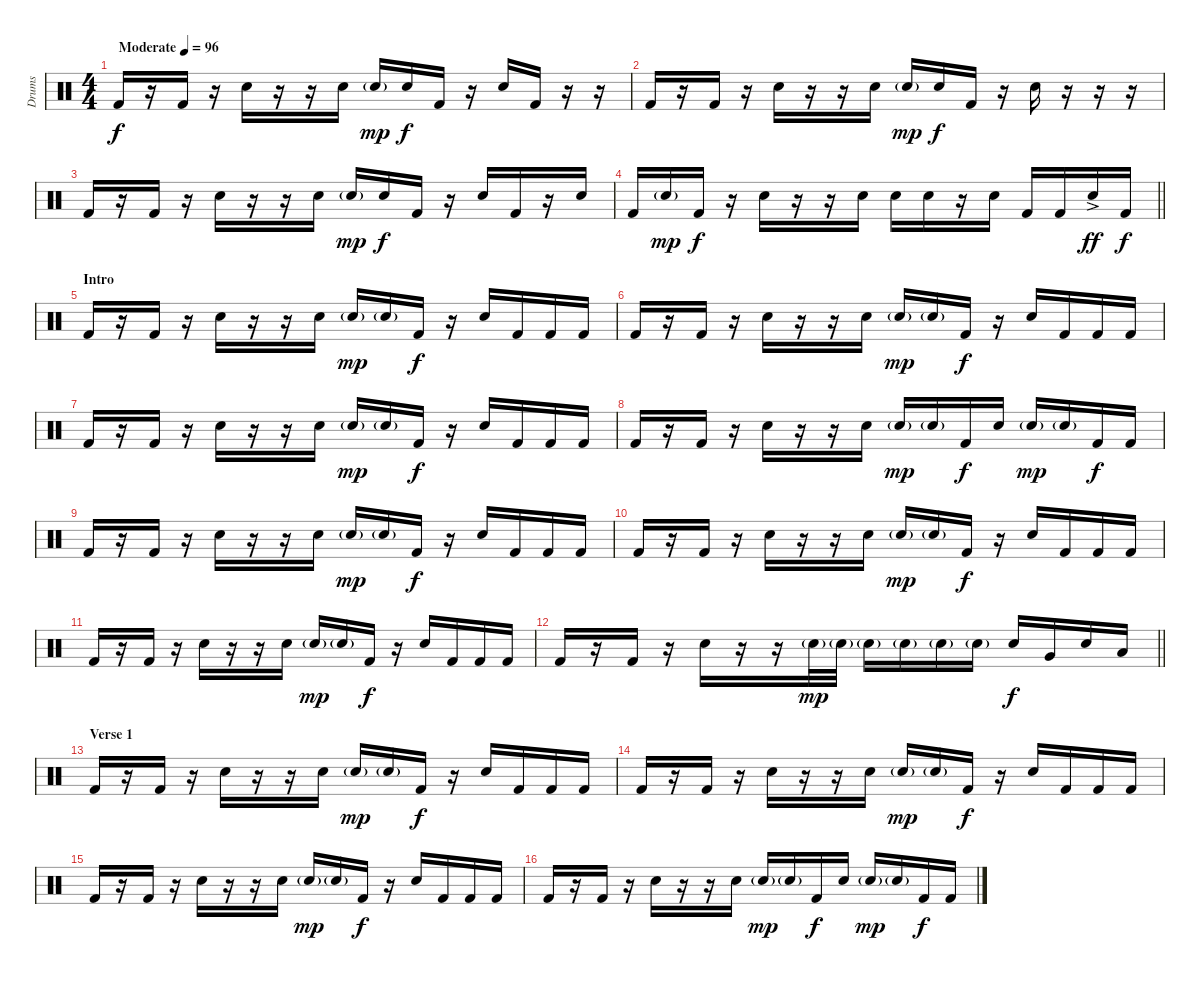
\track ("Drums" "Drums") {instrument percussion}
\staff {score}
\articulation defaults
\ts (4 4)
\tempo (96 "Moderate")
\clef neutral
\ks c "Kick (hit) 2".16{dy f}
r.16 "Kick (hit) 2".16 r.16 "Snare (hit) 2".16 r.16 r.16 "Snare (hit) 2".16 "Snare (hit) 2"{g}.16{dy mp} "Snare (hit) 2".16{dy f} "Kick (hit) 2".16 r.16 "Snare (hit) 2".16 "Kick (hit) 2".16 r.16 r.16 |
"Kick (hit) 2".16 r.16 "Kick (hit) 2".16 r.16 "Snare (hit) 2".16 r.16 r.16 "Snare (hit) 2".16 "Snare (hit) 2"{g}.16{dy mp} "Snare (hit) 2".16{dy f} "Kick (hit) 2".16 r.16 "Snare (hit) 2".16 r.16 r.16 r.16 |
"Kick (hit) 2".16 r.16 "Kick (hit) 2".16 r.16 "Snare (hit) 2".16 r.16 r.16 "Snare (hit) 2".16 "Snare (hit) 2"{g}.16{dy mp} "Snare (hit) 2".16{dy f} "Kick (hit) 2".16 r.16 "Snare (hit) 2".16 "Kick (hit) 2".16 r.16 "Snare (hit) 2".16 |
\barLineRight lightlight "Kick (hit) 2".16 "Snare (hit) 2"{g}.16{dy mp} "Kick (hit) 2".16{dy f}
r.16 "Snare (hit) 2".16 r.16 r.16 "Snare (hit) 2".16 "Snare (hit) 2".16 "Snare (hit) 2".16 r.16 "Snare (hit) 2".16 "Kick (hit) 2".16 "Kick (hit) 2".16 "Snare (hit) 2"{ac}.16{dy ff} "Kick (hit) 2".16{dy f} |
\section ("" "Intro")
"Kick (hit) 2".16 r.16 "Kick (hit) 2".16 r.16 "Snare (hit) 2".16 r.16 r.16 "Snare (hit) 2".16 "Snare (hit) 2"{g}.16{dy mp} "Snare (hit) 2"{g}.16 "Kick (hit) 2".16{dy f} r.16 "Snare (hit) 2".16 "Kick (hit) 2".16 "Kick (hit) 2".16 "Kick (hit) 2".16 |
"Kick (hit) 2".16 r.16 "Kick (hit) 2".16 r.16 "Snare (hit) 2".16 r.16 r.16 "Snare (hit) 2".16 "Snare (hit) 2"{g}.16{dy mp} "Snare (hit) 2"{g}.16 "Kick (hit) 2".16{dy f} r.16 "Snare (hit) 2".16 "Kick (hit) 2".16 "Kick (hit) 2".16 "Kick (hit) 2".16 |
"Kick (hit) 2".16 r.16 "Kick (hit) 2".16 r.16 "Snare (hit) 2".16 r.16 r.16 "Snare (hit) 2".16 "Snare (hit) 2"{g}.16{dy mp} "Snare (hit) 2"{g}.16 "Kick (hit) 2".16{dy f} r.16 "Snare (hit) 2".16 "Kick (hit) 2".16 "Kick (hit) 2".16 "Kick (hit) 2".16 |
"Kick (hit) 2".16 r.16 "Kick (hit) 2".16 r.16 "Snare (hit) 2".16 r.16 r.16 "Snare (hit) 2".16 "Snare (hit) 2"{g}.16{dy mp} "Snare (hit) 2"{g}.16 "Kick (hit) 2".16{dy f} "Snare (hit) 2".16 "Snare (hit) 2"{g}.16{dy mp} "Snare (hit) 2"{g}.16 "Kick (hit) 2".16{dy f} "Kick (hit) 2".16 |
"Kick (hit) 2".16 r.16 "Kick (hit) 2".16 r.16 "Snare (hit) 2".16 r.16 r.16 "Snare (hit) 2".16 "Snare (hit) 2"{g}.16{dy mp} "Snare (hit) 2"{g}.16 "Kick (hit) 2".16{dy f} r.16 "Snare (hit) 2".16 "Kick (hit) 2".16 "Kick (hit) 2".16 "Kick (hit) 2".16 |
"Kick (hit) 2".16 r.16 "Kick (hit) 2".16 r.16 "Snare (hit) 2".16 r.16 r.16 "Snare (hit) 2".16 "Snare (hit) 2"{g}.16{dy mp} "Snare (hit) 2"{g}.16 "Kick (hit) 2".16{dy f} r.16 "Snare (hit) 2".16 "Kick (hit) 2".16 "Kick (hit) 2".16 "Kick (hit) 2".16 |
"Kick (hit) 2".16 r.16 "Kick (hit) 2".16 r.16 "Snare (hit) 2".16 r.16 r.16 "Snare (hit) 2".16 "Snare (hit) 2"{g}.16{dy mp} "Snare (hit) 2"{g}.16 "Kick (hit) 2".16{dy f} r.16 "Snare (hit) 2".16 "Kick (hit) 2".16 "Kick (hit) 2".16 "Kick (hit) 2".16 |
\barLineRight lightlight "Kick (hit) 2".16
r.16 "Kick (hit) 2".16 r.16 "Snare (hit) 2".16 r.16 r.16 "Snare (hit) 2"{g}.32{dy mp} "Snare (hit) 2"{g}.32 "Snare (hit) 2"{g}.16 "Snare (hit) 2"{g}.16 "Snare (hit) 2"{g}.16 "Snare (hit) 2"{g}.16 "Snare (hit) 2".16{dy f} "Very Low Tom (hit)".16 "Snare (hit) 2".16 "Low Tom (hit)".16 |
\section ("" "Verse 1")
"Kick (hit) 2".16 r.16 "Kick (hit) 2".16 r.16 "Snare (hit) 2".16 r.16 r.16 "Snare (hit) 2".16 "Snare (hit) 2"{g}.16{dy mp} "Snare (hit) 2"{g}.16 "Kick (hit) 2".16{dy f} r.16 "Snare (hit) 2".16 "Kick (hit) 2".16 "Kick (hit) 2".16 "Kick (hit) 2".16 |
"Kick (hit) 2".16 r.16 "Kick (hit) 2".16 r.16 "Snare (hit) 2".16 r.16 r.16 "Snare (hit) 2".16 "Snare (hit) 2"{g}.16{dy mp} "Snare (hit) 2"{g}.16 "Kick (hit) 2".16{dy f} r.16 "Snare (hit) 2".16 "Kick (hit) 2".16 "Kick (hit) 2".16 "Kick (hit) 2".16 |
"Kick (hit) 2".16 r.16 "Kick (hit) 2".16 r.16 "Snare (hit) 2".16 r.16 r.16 "Snare (hit) 2".16 "Snare (hit) 2"{g}.16{dy mp} "Snare (hit) 2"{g}.16 "Kick (hit) 2".16{dy f} r.16 "Snare (hit) 2".16 "Kick (hit) 2".16 "Kick (hit) 2".16 "Kick (hit) 2".16 |
"Kick (hit) 2".16 r.16 "Kick (hit) 2".16 r.16 "Snare (hit) 2".16 r.16 r.16 "Snare (hit) 2".16 "Snare (hit) 2"{g}.16{dy mp} "Snare (hit) 2"{g}.16 "Kick (hit) 2".16{dy f} "Snare (hit) 2".16 "Snare (hit) 2"{g}.16{dy mp} "Snare (hit) 2"{g}.16 "Kick (hit) 2".16{dy f} "Kick (hit) 2".16
